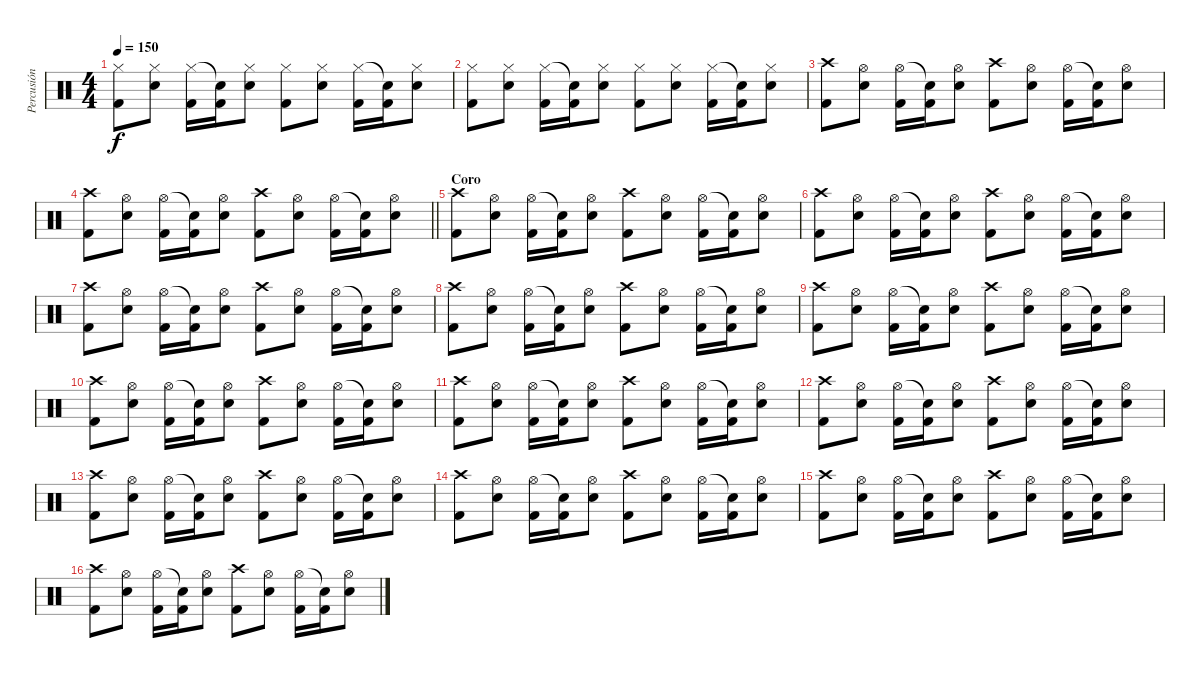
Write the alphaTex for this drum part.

\track ("Percusión" "Percusión") {instrument percussion}
\staff {score}
\articulation defaults
\ts (4 4)
\tempo 150
\clef neutral
\ks c
("Hi-Hat (closed)" "Kick (hit) 2").8{dy f} ("Hi-Hat (closed)" "Electric Snare (hit)").8 ("Hi-Hat (closed)" "Kick (hit) 2").16 ("Snare (hit)"{t} "Kick (hit) 2").16 ("Hi-Hat (closed)" "Electric Snare (hit)").8 ("Hi-Hat (closed)" "Kick (hit) 2").8 ("Hi-Hat (closed)" "Electric Snare (hit)").8 ("Hi-Hat (closed)" "Kick (hit) 2").16 ("Snare (hit)"{t} "Kick (hit) 2").16 ("Hi-Hat (closed)" "Electric Snare (hit)").8 |
("Hi-Hat (closed)" "Kick (hit) 2").8 ("Hi-Hat (closed)" "Electric Snare (hit)").8 ("Hi-Hat (closed)" "Kick (hit) 2").16 ("Snare (hit)"{t} "Kick (hit) 2").16 ("Hi-Hat (closed)" "Electric Snare (hit)").8 ("Hi-Hat (closed)" "Kick (hit) 2").8 ("Hi-Hat (closed)" "Electric Snare (hit)").8 ("Hi-Hat (closed)" "Kick (hit) 2").16 ("Snare (hit)"{t} "Kick (hit) 2").16 ("Hi-Hat (closed)" "Electric Snare (hit)").8 |
("Crash high (hit)" "Kick (hit) 2").8 ("Hi-Hat (open)" "Electric Snare (hit)").8 ("Hi-Hat (open)" "Kick (hit) 2").16 ("Snare (hit)"{t} "Kick (hit) 2").16 ("Hi-Hat (open)" "Electric Snare (hit)").8 ("Crash high (hit)" "Kick (hit) 2").8 ("Hi-Hat (open)" "Electric Snare (hit)").8 ("Hi-Hat (open)" "Kick (hit) 2").16 ("Snare (hit)"{t} "Kick (hit) 2").16 ("Hi-Hat (open)" "Electric Snare (hit)").8 |
\barLineRight lightlight
("Crash high (hit)" "Kick (hit) 2").8 ("Hi-Hat (open)" "Electric Snare (hit)").8 ("Hi-Hat (open)" "Kick (hit) 2").16 ("Snare (hit)"{t} "Kick (hit) 2").16 ("Hi-Hat (open)" "Electric Snare (hit)").8 ("Crash high (hit)" "Kick (hit) 2").8 ("Hi-Hat (open)" "Electric Snare (hit)").8 ("Hi-Hat (open)" "Kick (hit) 2").16 ("Snare (hit)"{t} "Kick (hit) 2").16 ("Hi-Hat (open)" "Electric Snare (hit)").8 |
\section ("" "Coro")
("Crash high (hit)" "Kick (hit) 2").8 ("Hi-Hat (open)" "Electric Snare (hit)").8 ("Hi-Hat (open)" "Kick (hit) 2").16 ("Snare (hit)"{t} "Kick (hit) 2").16 ("Hi-Hat (open)" "Electric Snare (hit)").8 ("Crash high (hit)" "Kick (hit) 2").8 ("Hi-Hat (open)" "Electric Snare (hit)").8 ("Hi-Hat (open)" "Kick (hit) 2").16 ("Snare (hit)"{t} "Kick (hit) 2").16 ("Hi-Hat (open)" "Electric Snare (hit)").8 |
("Crash high (hit)" "Kick (hit) 2").8 ("Hi-Hat (open)" "Electric Snare (hit)").8 ("Hi-Hat (open)" "Kick (hit) 2").16 ("Snare (hit)"{t} "Kick (hit) 2").16 ("Hi-Hat (open)" "Electric Snare (hit)").8 ("Crash high (hit)" "Kick (hit) 2").8 ("Hi-Hat (open)" "Electric Snare (hit)").8 ("Hi-Hat (open)" "Kick (hit) 2").16 ("Snare (hit)"{t} "Kick (hit) 2").16 ("Hi-Hat (open)" "Electric Snare (hit)").8 |
("Crash high (hit)" "Kick (hit) 2").8 ("Hi-Hat (open)" "Electric Snare (hit)").8 ("Hi-Hat (open)" "Kick (hit) 2").16 ("Snare (hit)"{t} "Kick (hit) 2").16 ("Hi-Hat (open)" "Electric Snare (hit)").8 ("Crash high (hit)" "Kick (hit) 2").8 ("Hi-Hat (open)" "Electric Snare (hit)").8 ("Hi-Hat (open)" "Kick (hit) 2").16 ("Snare (hit)"{t} "Kick (hit) 2").16 ("Hi-Hat (open)" "Electric Snare (hit)").8 |
("Crash high (hit)" "Kick (hit) 2").8 ("Hi-Hat (open)" "Electric Snare (hit)").8 ("Hi-Hat (open)" "Kick (hit) 2").16 ("Snare (hit)"{t} "Kick (hit) 2").16 ("Hi-Hat (open)" "Electric Snare (hit)").8 ("Crash high (hit)" "Kick (hit) 2").8 ("Hi-Hat (open)" "Electric Snare (hit)").8 ("Hi-Hat (open)" "Kick (hit) 2").16 ("Snare (hit)"{t} "Kick (hit) 2").16 ("Hi-Hat (open)" "Electric Snare (hit)").8 |
("Crash high (hit)" "Kick (hit) 2").8 ("Hi-Hat (open)" "Electric Snare (hit)").8 ("Hi-Hat (open)" "Kick (hit) 2").16 ("Snare (hit)"{t} "Kick (hit) 2").16 ("Hi-Hat (open)" "Electric Snare (hit)").8 ("Crash high (hit)" "Kick (hit) 2").8 ("Hi-Hat (open)" "Electric Snare (hit)").8 ("Hi-Hat (open)" "Kick (hit) 2").16 ("Snare (hit)"{t} "Kick (hit) 2").16 ("Hi-Hat (open)" "Electric Snare (hit)").8 |
("Crash high (hit)" "Kick (hit) 2").8 ("Hi-Hat (open)" "Electric Snare (hit)").8 ("Hi-Hat (open)" "Kick (hit) 2").16 ("Snare (hit)"{t} "Kick (hit) 2").16 ("Hi-Hat (open)" "Electric Snare (hit)").8 ("Crash high (hit)" "Kick (hit) 2").8 ("Hi-Hat (open)" "Electric Snare (hit)").8 ("Hi-Hat (open)" "Kick (hit) 2").16 ("Snare (hit)"{t} "Kick (hit) 2").16 ("Hi-Hat (open)" "Electric Snare (hit)").8 |
("Crash high (hit)" "Kick (hit) 2").8 ("Hi-Hat (open)" "Electric Snare (hit)").8 ("Hi-Hat (open)" "Kick (hit) 2").16 ("Snare (hit)"{t} "Kick (hit) 2").16 ("Hi-Hat (open)" "Electric Snare (hit)").8 ("Crash high (hit)" "Kick (hit) 2").8 ("Hi-Hat (open)" "Electric Snare (hit)").8 ("Hi-Hat (open)" "Kick (hit) 2").16 ("Snare (hit)"{t} "Kick (hit) 2").16 ("Hi-Hat (open)" "Electric Snare (hit)").8 |
("Crash high (hit)" "Kick (hit) 2").8 ("Hi-Hat (open)" "Electric Snare (hit)").8 ("Hi-Hat (open)" "Kick (hit) 2").16 ("Snare (hit)"{t} "Kick (hit) 2").16 ("Hi-Hat (open)" "Electric Snare (hit)").8 ("Crash high (hit)" "Kick (hit) 2").8 ("Hi-Hat (open)" "Electric Snare (hit)").8 ("Hi-Hat (open)" "Kick (hit) 2").16 ("Snare (hit)"{t} "Kick (hit) 2").16 ("Hi-Hat (open)" "Electric Snare (hit)").8 |
("Crash high (hit)" "Kick (hit) 2").8 ("Hi-Hat (open)" "Electric Snare (hit)").8 ("Hi-Hat (open)" "Kick (hit) 2").16 ("Snare (hit)"{t} "Kick (hit) 2").16 ("Hi-Hat (open)" "Electric Snare (hit)").8 ("Crash high (hit)" "Kick (hit) 2").8 ("Hi-Hat (open)" "Electric Snare (hit)").8 ("Hi-Hat (open)" "Kick (hit) 2").16 ("Snare (hit)"{t} "Kick (hit) 2").16 ("Hi-Hat (open)" "Electric Snare (hit)").8 |
("Crash high (hit)" "Kick (hit) 2").8 ("Hi-Hat (open)" "Electric Snare (hit)").8 ("Hi-Hat (open)" "Kick (hit) 2").16 ("Snare (hit)"{t} "Kick (hit) 2").16 ("Hi-Hat (open)" "Electric Snare (hit)").8 ("Crash high (hit)" "Kick (hit) 2").8 ("Hi-Hat (open)" "Electric Snare (hit)").8 ("Hi-Hat (open)" "Kick (hit) 2").16 ("Snare (hit)"{t} "Kick (hit) 2").16 ("Hi-Hat (open)" "Electric Snare (hit)").8 |
("Crash high (hit)" "Kick (hit) 2").8 ("Hi-Hat (open)" "Electric Snare (hit)").8 ("Hi-Hat (open)" "Kick (hit) 2").16 ("Snare (hit)"{t} "Kick (hit) 2").16 ("Hi-Hat (open)" "Electric Snare (hit)").8 ("Crash high (hit)" "Kick (hit) 2").8 ("Hi-Hat (open)" "Electric Snare (hit)").8 ("Hi-Hat (open)" "Kick (hit) 2").16 ("Snare (hit)"{t} "Kick (hit) 2").16 ("Hi-Hat (open)" "Electric Snare (hit)").8 |
("Crash high (hit)" "Kick (hit) 2").8 ("Hi-Hat (open)" "Electric Snare (hit)").8 ("Hi-Hat (open)" "Kick (hit) 2").16 ("Snare (hit)"{t} "Kick (hit) 2").16 ("Hi-Hat (open)" "Electric Snare (hit)").8 ("Crash high (hit)" "Kick (hit) 2").8 ("Hi-Hat (open)" "Electric Snare (hit)").8 ("Hi-Hat (open)" "Kick (hit) 2").16 ("Snare (hit)"{t} "Kick (hit) 2").16 ("Hi-Hat (open)" "Electric Snare (hit)").8
